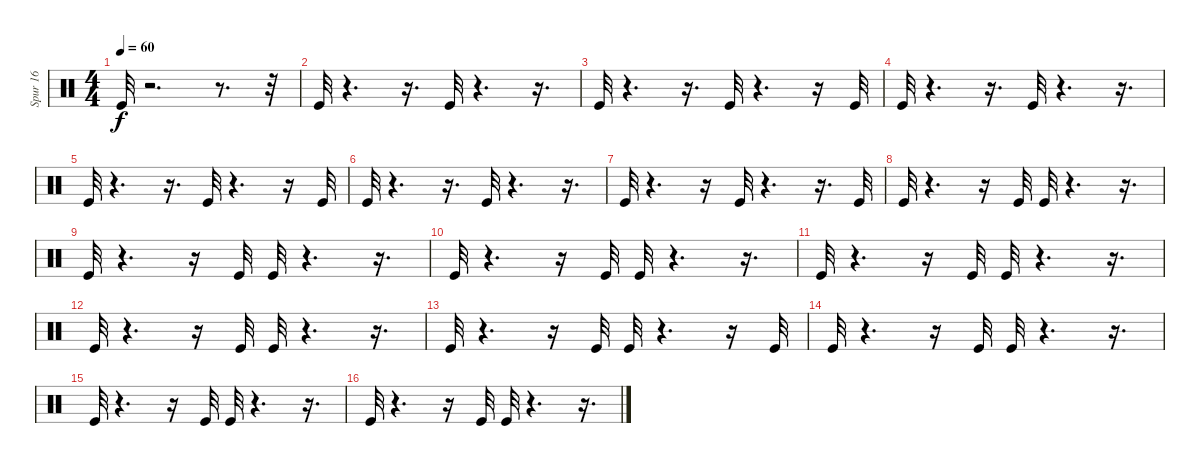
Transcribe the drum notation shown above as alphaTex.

\track ("Spur 16" "Spur 16") {instrument percussion}
\staff {score}
\articulation defaults
\ts (4 4)
\tempo 60
\clef neutral
\ks c "Kick (hit)".32{dy f}
r.2{d} r.8{d} r.32 |
"Kick (hit)".32 r.4{d} r.16{d} "Kick (hit)".32 r.4{d} r.16{d} |
"Kick (hit)".32 r.4{d} r.16{d} "Kick (hit)".32 r.4{d} r.16 "Kick (hit)".32 |
"Kick (hit)".32 r.4{d} r.16{d} "Kick (hit)".32 r.4{d} r.16{d} |
"Kick (hit)".32 r.4{d} r.16{d} "Kick (hit)".32 r.4{d} r.16 "Kick (hit)".32 |
"Kick (hit)".32 r.4{d} r.16{d} "Kick (hit)".32 r.4{d} r.16{d} |
"Kick (hit)".32 r.4{d} r.16 "Kick (hit)".32 r.4{d} r.16{d} "Kick (hit)".32 |
"Kick (hit)".32 r.4{d} r.16 "Kick (hit)".32 "Kick (hit)".32 r.4{d} r.16{d} |
"Kick (hit)".32 r.4{d} r.16 "Kick (hit)".32 "Kick (hit)".32 r.4{d} r.16{d} |
"Kick (hit)".32 r.4{d} r.16 "Kick (hit)".32 "Kick (hit)".32 r.4{d} r.16{d} |
"Kick (hit)".32 r.4{d} r.16 "Kick (hit)".32 "Kick (hit)".32 r.4{d} r.16{d} |
"Kick (hit)".32 r.4{d} r.16 "Kick (hit)".32 "Kick (hit)".32 r.4{d} r.16{d} |
"Kick (hit)".32 r.4{d} r.16 "Kick (hit)".32 "Kick (hit)".32 r.4{d} r.16 "Kick (hit)".32 |
"Kick (hit)".32 r.4{d} r.16 "Kick (hit)".32 "Kick (hit)".32 r.4{d} r.16{d} |
"Kick (hit)".32 r.4{d} r.16 "Kick (hit)".32 "Kick (hit)".32 r.4{d} r.16{d} |
"Kick (hit)".32 r.4{d} r.16 "Kick (hit)".32 "Kick (hit)".32 r.4{d} r.16{d}
